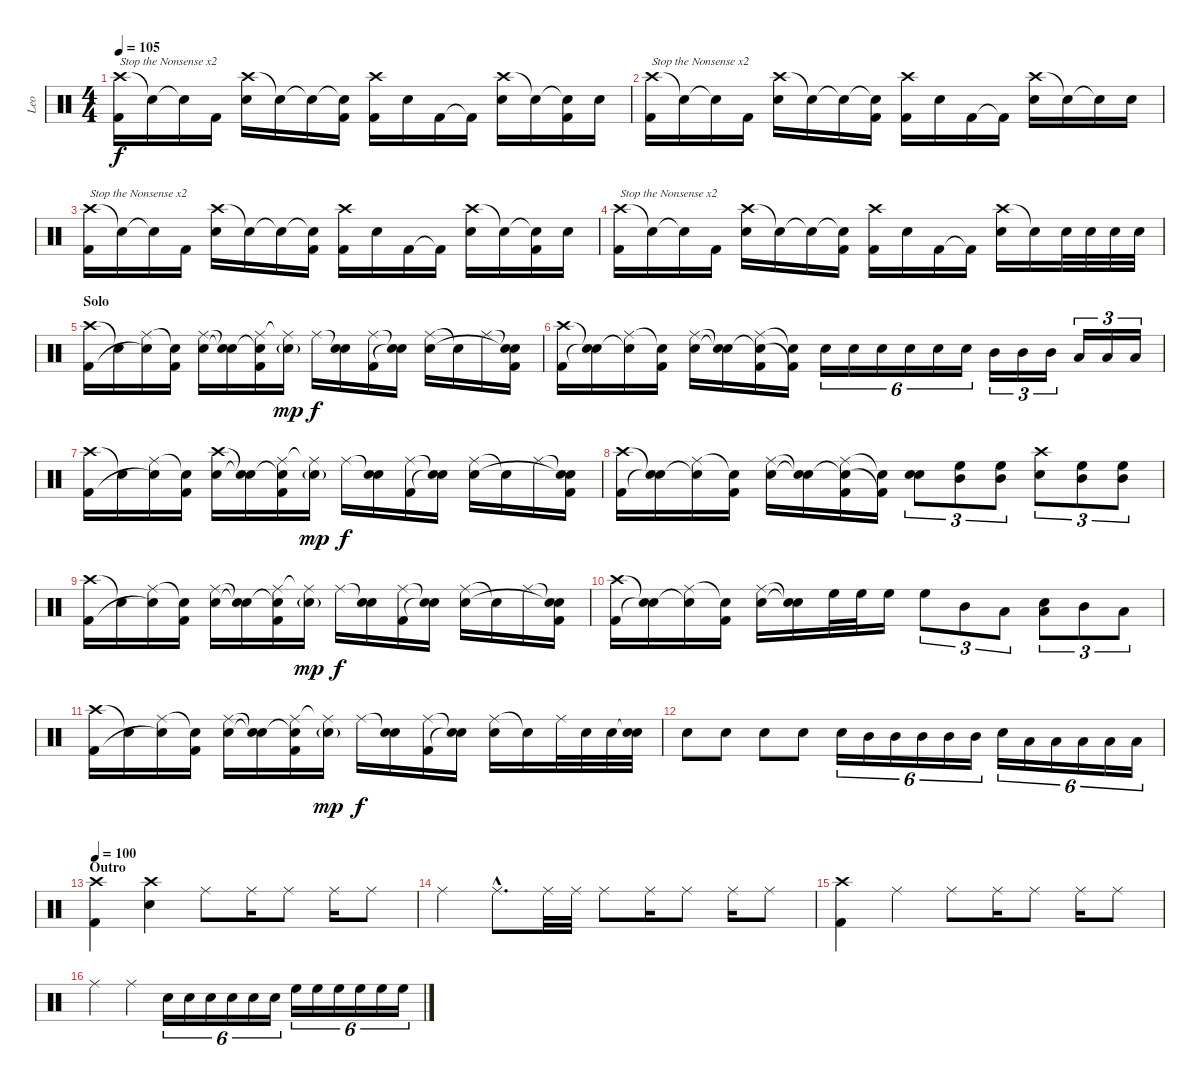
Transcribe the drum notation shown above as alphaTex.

\track ("Leo" "Leo") {instrument percussion}
\staff {score}
\articulation defaults
\ts (4 4)
\tempo 105
\clef neutral
\ks c
("Crash high (hit)" "Kick (hit) 2").16{txt "Stop the Nonsense x2" dy f} "Snare (hit)"{t}.16 "Snare (hit)"{t}.16 "Kick (hit) 2".16 ("Crash high (hit)" "Snare (hit) 2").16 "Snare (hit)"{t}.16 "Snare (hit)"{t}.16 ("Snare (hit)"{t} "Kick (hit) 2").16 ("Crash high (hit)" "Kick (hit) 2").16 "Snare (hit) 2".16 "Kick (hit) 2".16 "Kick (hit) 2"{t}.16 ("Crash high (hit)" "Snare (hit) 2").16 "Snare (hit) 2"{t}.16 ("Snare (hit)"{t} "Kick (hit) 2").16 "Snare (hit) 2".16 |
("Crash high (hit)" "Kick (hit) 2").16{txt "Stop the Nonsense x2"} "Snare (hit)"{t}.16 "Snare (hit)"{t}.16 "Kick (hit) 2".16 ("Crash high (hit)" "Snare (hit) 2").16 "Snare (hit)"{t}.16 "Snare (hit)"{t}.16 ("Snare (hit)"{t} "Kick (hit) 2").16 ("Crash high (hit)" "Kick (hit) 2").16 "Snare (hit) 2".16 "Kick (hit) 2".16 "Kick (hit) 2"{t}.16 ("Crash high (hit)" "Snare (hit) 2").16 "Snare (hit) 2"{t}.16 "Snare (hit)"{t}.16 "Snare (hit) 2".16 |
("Crash high (hit)" "Kick (hit) 2").16{txt "Stop the Nonsense x2"} "Snare (hit)"{t}.16 "Snare (hit)"{t}.16 "Kick (hit) 2".16 ("Crash high (hit)" "Snare (hit) 2").16 "Snare (hit)"{t}.16 "Snare (hit)"{t}.16 ("Snare (hit)"{t} "Kick (hit) 2").16 ("Crash high (hit)" "Kick (hit) 2").16 "Snare (hit) 2".16 "Kick (hit) 2".16 "Kick (hit) 2"{t}.16 ("Crash high (hit)" "Snare (hit) 2").16 "Snare (hit) 2"{t}.16 ("Snare (hit)"{t} "Kick (hit) 2").16 "Snare (hit) 2".16 |
("Crash high (hit)" "Kick (hit) 2").16{txt "Stop the Nonsense x2"} "Snare (hit)"{t}.16 "Snare (hit)"{t}.16 "Kick (hit) 2".16 ("Crash high (hit)" "Snare (hit) 2").16 "Snare (hit)"{t}.16 "Snare (hit)"{t}.16 ("Snare (hit)"{t} "Kick (hit) 2").16 ("Crash high (hit)" "Kick (hit) 2").16 "Snare (hit) 2".16 "Kick (hit) 2".16 "Kick (hit) 2"{t}.16 ("Crash high (hit)" "Snare (hit) 2").16 "Snare (hit) 2"{t}.16 "Snare (hit) 2".32 "Snare (hit) 2".32 "Snare (hit) 2".32 "Snare (hit) 2".32 |
\section ("" "Solo")
("Crash high (hit)" "Kick (hit) 2").16 "Snare (hit)"{t}.16 ("Ride (middle)" "Snare (hit)"{t}).16 ("Snare (hit)"{t} "Kick (hit) 2").16 ("Ride (middle)" "Snare (hit) 2").16 ("Snare (hit)"{t} "Snare (hit) 2"{t}).16 ("Ride (middle)" "Snare (hit)"{t} "Kick (hit) 2").16 ("Ride (middle)"{t} "Snare (hit) 2"{g}).16{dy mp} "Ride (middle)".16{dy f} ("Snare (hit)"{t} "Snare (hit) 2").16 ("Ride (middle)" "Kick (hit) 2").16 ("Snare (hit)"{t} "Snare (hit)"{t}).16 ("Ride (middle)" "Snare (hit) 2").16 "Snare (hit)"{t}.16 "Ride (middle)".16 ("Snare (hit)"{t} "Snare (hit)"{t} "Kick (hit) 2").16 |
("Crash high (hit)" "Kick (hit) 2").16 ("Snare (hit)"{t} "Snare (hit)"{t}).16 ("Ride (middle)" "Snare (hit)"{t}).16 ("Snare (hit)"{t} "Kick (hit) 2").16 ("Ride (middle)" "Snare (hit) 2").16 ("Snare (hit)"{t} "Snare (hit)"{t}).16 ("Ride (middle)" "Snare (hit)"{t} "Kick (hit) 2").16 ("Snare (hit)"{t} "Kick (hit) 2"{t}).16 "Snare (hit) 2".16{tu (6 4)} "Snare (hit) 2".16{tu (6 4)} "Snare (hit) 2".16{tu (6 4)} "Snare (hit) 2".16{tu (6 4)} "Snare (hit) 2".16{tu (6 4)} "Snare (hit) 2".16{tu (6 4)} "Mid Tom (hit)".16{tu (3 2)} "Mid Tom (hit)".16{tu (3 2)} "Mid Tom (hit)".16{tu (3 2)} "Low Floor Tom (hit)".16{tu (3 2)} "Low Floor Tom (hit)".16{tu (3 2)} "Low Floor Tom (hit)".16{tu (3 2)} |
("Crash high (hit)" "Kick (hit) 2").16 "Snare (hit)"{t}.16 ("Ride (middle)" "Snare (hit)"{t}).16 ("Snare (hit)"{t} "Kick (hit) 2").16 ("Crash high (hit)" "Snare (hit) 2").16 ("Snare (hit)"{t} "Snare (hit) 2"{t}).16 ("Ride (middle)" "Snare (hit)"{t} "Kick (hit) 2").16 ("Ride (middle)"{t} "Snare (hit) 2"{g}).16{dy mp} "Ride (middle)".16{dy f} ("Snare (hit)"{t} "Snare (hit) 2").16 ("Ride (middle)" "Kick (hit) 2").16 ("Snare (hit)"{t} "Snare (hit)"{t}).16 ("Ride (middle)" "Snare (hit) 2").16 "Snare (hit)"{t}.16 "Ride (middle)".16 ("Snare (hit)"{t} "Snare (hit)"{t} "Kick (hit) 2").16 |
("Crash high (hit)" "Kick (hit) 2").16 ("Snare (hit)"{t} "Snare (hit)"{t}).16 ("Ride (middle)" "Snare (hit)"{t}).16 ("Snare (hit)"{t} "Kick (hit) 2").16 ("Ride (middle)" "Snare (hit) 2").16 ("Snare (hit)"{t} "Snare (hit)"{t}).16 ("Ride (middle)" "Snare (hit)"{t} "Kick (hit) 2").16 ("Snare (hit)"{t} "Kick (hit) 2"{t}).16 ("Snare (hit) 2" "Snare (hit) 2").8{tu (3 2)} ("Mid Tom (hit)" "High Floor Tom (hit)").8{tu (3 2)} ("Mid Tom (hit)" "High Floor Tom (hit)").8{tu (3 2)} ("Crash high (hit)" "Snare (hit) 2").8{tu (3 2)} ("Mid Tom (hit)" "High Floor Tom (hit)").8{tu (3 2)} ("Mid Tom (hit)" "High Floor Tom (hit)").8{tu (3 2)} |
("Crash high (hit)" "Kick (hit) 2").16 "Snare (hit)"{t}.16 ("Ride (middle)" "Snare (hit)"{t}).16 ("Snare (hit)"{t} "Kick (hit) 2").16 ("Ride (middle)" "Snare (hit) 2").16 ("Snare (hit)"{t} "Snare (hit) 2"{t}).16 ("Ride (middle)" "Snare (hit)"{t} "Kick (hit) 2").16 ("Ride (middle)"{t} "Snare (hit) 2"{g}).16{dy mp} "Ride (middle)".16{dy f} ("Snare (hit)"{t} "Snare (hit) 2").16 ("Ride (middle)" "Kick (hit) 2").16 ("Snare (hit)"{t} "Snare (hit)"{t}).16 ("Ride (middle)" "Snare (hit) 2").16 "Snare (hit)"{t}.16 "Ride (middle)".16 ("Snare (hit)"{t} "Snare (hit)"{t} "Kick (hit) 2").16 |
("Crash high (hit)" "Kick (hit) 2").16 ("Snare (hit)"{t} "Snare (hit)"{t}).16 ("Ride (middle)" "Snare (hit)"{t}).16 ("Snare (hit)"{t} "Kick (hit) 2").16 ("Ride (middle)" "Snare (hit) 2").16 ("Snare (hit)"{t} "Snare (hit)"{t}).16 "High Floor Tom (hit)".32 "High Floor Tom (hit)".32 "High Floor Tom (hit)".16 "High Floor Tom (hit)".8{tu (3 2)} "Mid Tom (hit)".8{tu (3 2)} "Low Floor Tom (hit)".8{tu (3 2)} ("Snare (hit) 2" "Low Floor Tom (hit)").8{tu (3 2)} "Mid Tom (hit)".8{tu (3 2)} "Low Floor Tom (hit)".8{tu (3 2)} |
("Crash high (hit)" "Kick (hit) 2").16 "Snare (hit)"{t}.16 ("Ride (middle)" "Snare (hit)"{t}).16 ("Snare (hit)"{t} "Kick (hit) 2").16 ("Ride (middle)" "Snare (hit) 2").16 ("Snare (hit)"{t} "Snare (hit) 2"{t}).16 ("Ride (middle)" "Snare (hit)"{t} "Kick (hit) 2").16 ("Ride (middle)"{t} "Snare (hit) 2"{g}).16{dy mp} "Ride (middle)".16{dy f} ("Snare (hit)"{t} "Snare (hit) 2").16 ("Ride (middle)" "Kick (hit) 2").16 ("Snare (hit)"{t} "Snare (hit)"{t}).16 ("Ride (middle)" "Snare (hit) 2").16 "Snare (hit)"{t}.16 "Ride (middle)".32 "Snare (hit) 2".32 "Snare (hit) 2".32 ("Snare (hit)"{t} "Snare (hit) 2").32 |
"Snare (hit) 2".8 "Snare (hit) 2".8 "Snare (hit) 2".8 "Snare (hit) 2".8 "Snare (hit) 2".16{tu (6 4)} "Mid Tom (hit)".16{tu (6 4)} "Mid Tom (hit)".16{tu (6 4)} "Mid Tom (hit)".16{tu (6 4)} "Mid Tom (hit)".16{tu (6 4)} "Mid Tom (hit)".16{tu (6 4)} "Snare (hit) 2".16{tu (6 4)} "Low Floor Tom (hit)".16{tu (6 4)} "Low Floor Tom (hit)".16{tu (6 4)} "Low Floor Tom (hit)".16{tu (6 4)} "Low Floor Tom (hit)".16{tu (6 4)} "Low Floor Tom (hit)".16{tu (6 4)} |
\section ("" "Outro")
\tempo 100
("Crash high (hit)" "Kick (hit) 2").4 ("Crash high (hit)" "Snare (hit) 2").4 "Ride (middle)".8 "Ride (middle)".16 "Ride (middle)".8 "Ride (middle)".16 "Ride (middle)".8 |
"Ride (middle)".4 "Ride (middle)"{hac}.8{d} "Ride (middle)".32 "Ride (middle)".32 "Ride (middle)".8 "Ride (middle)".16 "Ride (middle)".8 "Ride (middle)".16 "Ride (middle)".8 |
("Crash high (hit)" "Kick (hit) 2").4 "Ride (middle)".4 "Ride (middle)".8 "Ride (middle)".16 "Ride (middle)".8 "Ride (middle)".16 "Ride (middle)".8 |
"Ride (middle)".4 "Ride (middle)".4 "Snare (hit) 2".16{tu (6 4)} "Snare (hit) 2".16{tu (6 4)} "Snare (hit) 2".16{tu (6 4)} "Snare (hit) 2".16{tu (6 4)} "Snare (hit) 2".16{tu (6 4)} "Snare (hit) 2".16{tu (6 4)} "High Floor Tom (hit)".16{tu (6 4)} "High Floor Tom (hit)".16{tu (6 4)} "High Floor Tom (hit)".16{tu (6 4)} "High Floor Tom (hit)".16{tu (6 4)} "High Floor Tom (hit)".16{tu (6 4)} "High Floor Tom (hit)".16{tu (6 4)}
